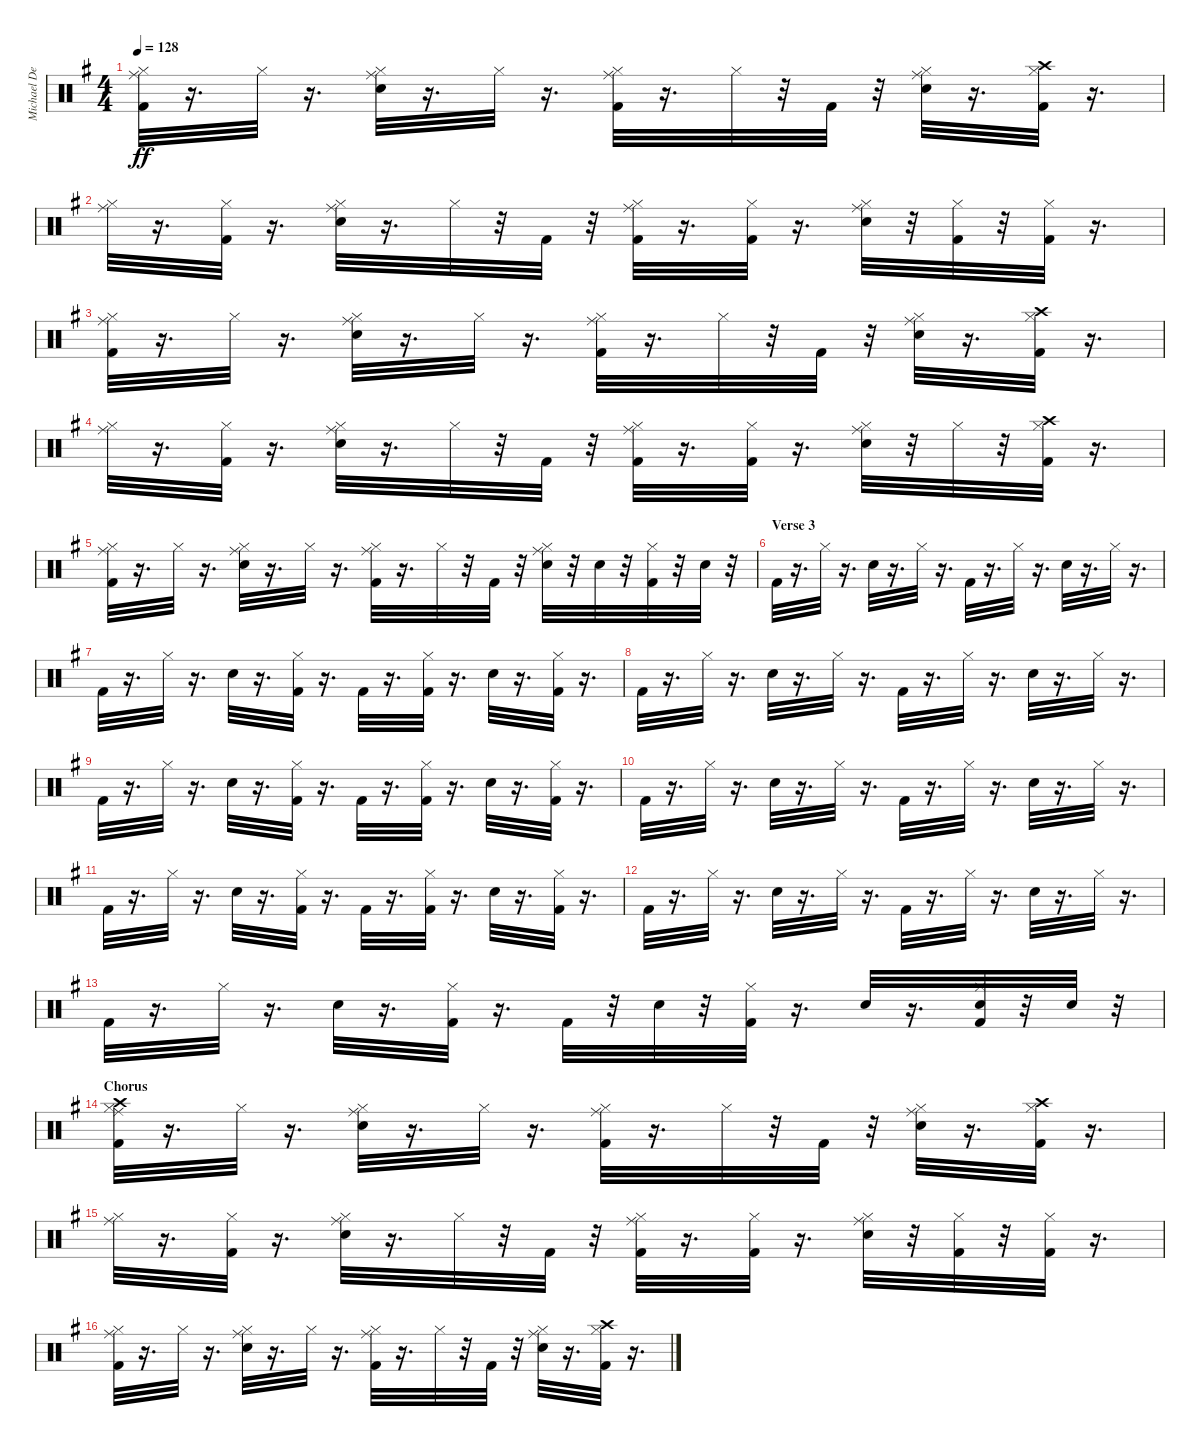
\track ("Michael DeRosier" "Michael De") {instrument percussion}
\staff {score}
\articulation defaults
\ts (4 4)
\tempo 128
\clef neutral
\ks g
("Kick (hit) 2" "Hi-Hat (closed)" "Ride (middle)").32{dy ff} r.16{d} "Hi-Hat (closed)".32 r.16{d} ("Snare (hit) 2" "Hi-Hat (closed)" "Ride (middle)").32 r.16{d} "Hi-Hat (closed)".32 r.16{d} ("Kick (hit) 2" "Hi-Hat (closed)" "Ride (middle)").32 r.16{d} "Hi-Hat (closed)".32 r.32 "Kick (hit) 2".32 r.32 ("Snare (hit) 2" "Hi-Hat (closed)" "Ride (middle)").32 r.16{d} ("Kick (hit) 2" "Hi-Hat (closed)" "Crash high (hit)").32 r.16{d} |
("Hi-Hat (closed)" "Ride (middle)").32 r.16{d} ("Kick (hit) 2" "Hi-Hat (closed)").32 r.16{d} ("Snare (hit) 2" "Hi-Hat (closed)" "Ride (middle)").32 r.16{d} "Hi-Hat (closed)".32 r.32 "Kick (hit) 2".32 r.32 ("Kick (hit) 2" "Hi-Hat (closed)" "Ride (middle)").32 r.16{d} ("Kick (hit) 2" "Hi-Hat (closed)").32 r.16{d} ("Snare (hit) 2" "Hi-Hat (closed)" "Ride (middle)").32 r.32 ("Kick (hit) 2" "Hi-Hat (closed)").32 r.32 ("Kick (hit) 2" "Hi-Hat (closed)").32 r.16{d} |
("Kick (hit) 2" "Hi-Hat (closed)" "Ride (middle)").32 r.16{d} "Hi-Hat (closed)".32 r.16{d} ("Snare (hit) 2" "Hi-Hat (closed)" "Ride (middle)").32 r.16{d} "Hi-Hat (closed)".32 r.16{d} ("Kick (hit) 2" "Hi-Hat (closed)" "Ride (middle)").32 r.16{d} "Hi-Hat (closed)".32 r.32 "Kick (hit) 2".32 r.32 ("Snare (hit) 2" "Hi-Hat (closed)" "Ride (middle)").32 r.16{d} ("Kick (hit) 2" "Hi-Hat (closed)" "Crash high (hit)").32 r.16{d} |
("Hi-Hat (closed)" "Ride (middle)").32 r.16{d} ("Kick (hit) 2" "Hi-Hat (closed)").32 r.16{d} ("Snare (hit) 2" "Hi-Hat (closed)" "Ride (middle)").32 r.16{d} "Hi-Hat (closed)".32 r.32 "Kick (hit) 2".32 r.32 ("Kick (hit) 2" "Hi-Hat (closed)" "Ride (middle)").32 r.16{d} ("Kick (hit) 2" "Hi-Hat (closed)").32 r.16{d} ("Snare (hit) 2" "Hi-Hat (closed)" "Ride (middle)").32 r.32 "Hi-Hat (closed)".32 r.32 ("Kick (hit) 2" "Hi-Hat (closed)" "Crash high (hit)").32 r.16{d} |
("Kick (hit) 2" "Hi-Hat (closed)" "Ride (middle)").32 r.16{d} "Hi-Hat (closed)".32 r.16{d} ("Snare (hit) 2" "Hi-Hat (closed)" "Ride (middle)").32 r.16{d} "Hi-Hat (closed)".32 r.16{d} ("Kick (hit) 2" "Hi-Hat (closed)" "Ride (middle)").32 r.16{d} "Hi-Hat (closed)".32 r.32 "Kick (hit) 2".32 r.32 ("Snare (hit) 2" "Hi-Hat (closed)" "Ride (middle)").32 r.32 "Snare (hit) 2".32 r.32 ("Kick (hit) 2" "Hi-Hat (closed)").32 r.32 "Snare (hit) 2".32 r.32 |
\section ("" "Verse 3")
"Kick (hit) 2".32 r.16{d} "Hi-Hat (closed)".32 r.16{d} "Snare (hit) 2".32 r.16{d} "Hi-Hat (closed)".32 r.16{d} "Kick (hit) 2".32 r.16{d} "Hi-Hat (closed)".32 r.16{d} "Snare (hit) 2".32 r.16{d} "Hi-Hat (closed)".32 r.16{d} |
"Kick (hit) 2".32 r.16{d} "Hi-Hat (closed)".32 r.16{d} "Snare (hit) 2".32 r.16{d} ("Kick (hit) 2" "Hi-Hat (closed)").32 r.16{d} "Kick (hit) 2".32 r.16{d} ("Kick (hit) 2" "Hi-Hat (closed)").32 r.16{d} "Snare (hit) 2".32 r.16{d} ("Kick (hit) 2" "Hi-Hat (closed)").32 r.16{d} |
"Kick (hit) 2".32 r.16{d} "Hi-Hat (closed)".32 r.16{d} "Snare (hit) 2".32 r.16{d} "Hi-Hat (closed)".32 r.16{d} "Kick (hit) 2".32 r.16{d} "Hi-Hat (closed)".32 r.16{d} "Snare (hit) 2".32 r.16{d} "Hi-Hat (closed)".32 r.16{d} |
"Kick (hit) 2".32 r.16{d} "Hi-Hat (closed)".32 r.16{d} "Snare (hit) 2".32 r.16{d} ("Kick (hit) 2" "Hi-Hat (closed)").32 r.16{d} "Kick (hit) 2".32 r.16{d} ("Kick (hit) 2" "Hi-Hat (closed)").32 r.16{d} "Snare (hit) 2".32 r.16{d} ("Kick (hit) 2" "Hi-Hat (closed)").32 r.16{d} |
"Kick (hit) 2".32 r.16{d} "Hi-Hat (closed)".32 r.16{d} "Snare (hit) 2".32 r.16{d} "Hi-Hat (closed)".32 r.16{d} "Kick (hit) 2".32 r.16{d} "Hi-Hat (closed)".32 r.16{d} "Snare (hit) 2".32 r.16{d} "Hi-Hat (closed)".32 r.16{d} |
"Kick (hit) 2".32 r.16{d} "Hi-Hat (closed)".32 r.16{d} "Snare (hit) 2".32 r.16{d} ("Kick (hit) 2" "Hi-Hat (closed)").32 r.16{d} "Kick (hit) 2".32 r.16{d} ("Kick (hit) 2" "Hi-Hat (closed)").32 r.16{d} "Snare (hit) 2".32 r.16{d} ("Kick (hit) 2" "Hi-Hat (closed)").32 r.16{d} |
"Kick (hit) 2".32 r.16{d} "Hi-Hat (closed)".32 r.16{d} "Snare (hit) 2".32 r.16{d} "Hi-Hat (closed)".32 r.16{d} "Kick (hit) 2".32 r.16{d} "Hi-Hat (closed)".32 r.16{d} "Snare (hit) 2".32 r.16{d} "Hi-Hat (closed)".32 r.16{d} |
"Kick (hit) 2".32 r.16{d} "Hi-Hat (closed)".32 r.16{d} "Snare (hit) 2".32 r.16{d} ("Kick (hit) 2" "Hi-Hat (closed)").32 r.16{d} "Kick (hit) 2".32 r.32 "Snare (hit) 2".32 r.32 ("Kick (hit) 2" "Hi-Hat (closed)").32 r.16{d} "Snare (hit) 2".32 r.16{d} ("Kick (hit) 2" "Snare (hit) 2" "Hi-Hat (closed)").32 r.32 "Snare (hit) 2".32 r.32 |
\section ("" "Chorus")
("Kick (hit) 2" "Hi-Hat (closed)" "Crash high (hit)" "Ride (middle)").32 r.16{d} "Hi-Hat (closed)".32 r.16{d} ("Snare (hit) 2" "Hi-Hat (closed)" "Ride (middle)").32 r.16{d} "Hi-Hat (closed)".32 r.16{d} ("Kick (hit) 2" "Hi-Hat (closed)" "Ride (middle)").32 r.16{d} "Hi-Hat (closed)".32 r.32 "Kick (hit) 2".32 r.32 ("Snare (hit) 2" "Hi-Hat (closed)" "Ride (middle)").32 r.16{d} ("Kick (hit) 2" "Hi-Hat (closed)" "Crash high (hit)").32 r.16{d} |
("Hi-Hat (closed)" "Ride (middle)").32 r.16{d} ("Kick (hit) 2" "Hi-Hat (closed)").32 r.16{d} ("Snare (hit) 2" "Hi-Hat (closed)" "Ride (middle)").32 r.16{d} "Hi-Hat (closed)".32 r.32 "Kick (hit) 2".32 r.32 ("Kick (hit) 2" "Hi-Hat (closed)" "Ride (middle)").32 r.16{d} ("Kick (hit) 2" "Hi-Hat (closed)").32 r.16{d} ("Snare (hit) 2" "Hi-Hat (closed)" "Ride (middle)").32 r.32 ("Kick (hit) 2" "Hi-Hat (closed)").32 r.32 ("Kick (hit) 2" "Hi-Hat (closed)").32 r.16{d} |
("Kick (hit) 2" "Hi-Hat (closed)" "Ride (middle)").32 r.16{d} "Hi-Hat (closed)".32 r.16{d} ("Snare (hit) 2" "Hi-Hat (closed)" "Ride (middle)").32 r.16{d} "Hi-Hat (closed)".32 r.16{d} ("Kick (hit) 2" "Hi-Hat (closed)" "Ride (middle)").32 r.16{d} "Hi-Hat (closed)".32 r.32 "Kick (hit) 2".32 r.32 ("Snare (hit) 2" "Hi-Hat (closed)" "Ride (middle)").32 r.16{d} ("Kick (hit) 2" "Hi-Hat (closed)" "Crash high (hit)").32 r.16{d}
